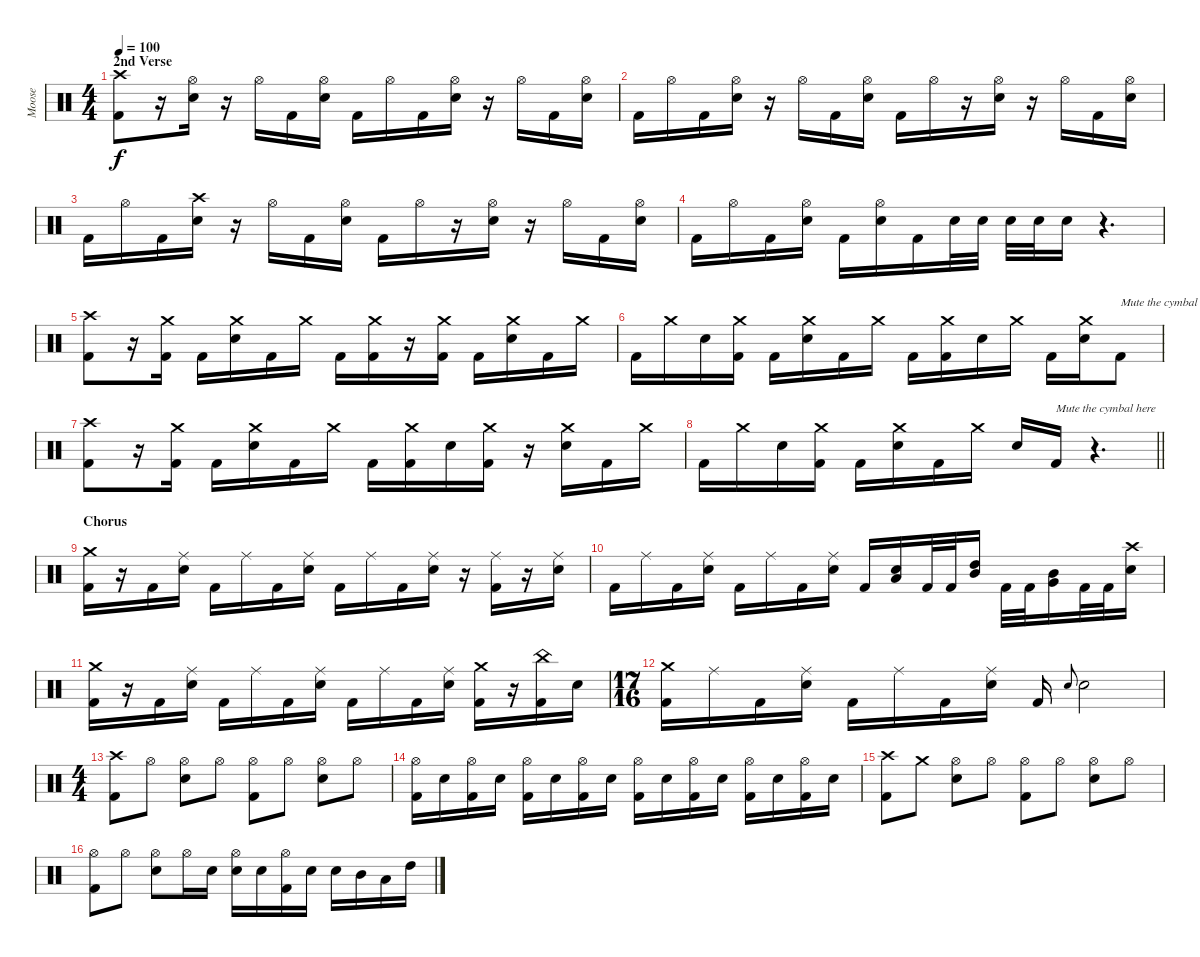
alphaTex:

\track ("Moose" "Moose") {instrument percussion}
\staff {score}
\articulation defaults
\ts (4 4)
\section ("" "2nd Verse")
\tempo 100
\clef neutral
\ks c
("Crash high (hit)" "Kick (hit) 2").8{dy f} r.16 ("Hi-Hat (open)" "Electric Snare (hit)").16 r.16 "Hi-Hat (open)".16 "Kick (hit) 2".16 ("Hi-Hat (open)" "Electric Snare (hit)").16 "Kick (hit) 2".16 "Hi-Hat (open)".16 "Kick (hit) 2".16 ("Hi-Hat (open)" "Electric Snare (hit)").16 r.16 "Hi-Hat (open)".16 "Kick (hit) 2".16 ("Hi-Hat (open)" "Electric Snare (hit)").16 |
"Kick (hit) 2".16 "Hi-Hat (open)".16 "Kick (hit) 2".16 ("Hi-Hat (open)" "Electric Snare (hit)").16 r.16 "Hi-Hat (open)".16 "Kick (hit) 2".16 ("Hi-Hat (open)" "Electric Snare (hit)").16 "Kick (hit) 2".16 "Hi-Hat (open)".16 r.16 ("Hi-Hat (open)" "Electric Snare (hit)").16 r.16 "Hi-Hat (open)".16 "Kick (hit) 2".16 ("Hi-Hat (open)" "Electric Snare (hit)").16 |
"Kick (hit) 2".16 "Hi-Hat (open)".16 "Kick (hit) 2".16 ("Crash high (hit)" "Electric Snare (hit)").16 r.16 "Hi-Hat (open)".16 "Kick (hit) 2".16 ("Hi-Hat (open)" "Electric Snare (hit)").16 "Kick (hit) 2".16 "Hi-Hat (open)".16 r.16 ("Hi-Hat (open)" "Electric Snare (hit)").16 r.16 "Hi-Hat (open)".16 "Kick (hit) 2".16 ("Hi-Hat (open)" "Electric Snare (hit)").16 |
"Kick (hit) 2".16 "Hi-Hat (open)".16 "Kick (hit) 2".16 ("Hi-Hat (open)" "Electric Snare (hit)").16 "Kick (hit) 2".16 ("Hi-Hat (open)" "Electric Snare (hit)").16 "Kick (hit) 2".16 "Electric Snare (hit)".32 "Electric Snare (hit)".32 "Electric Snare (hit)".32 "Electric Snare (hit)".32 "Electric Snare (hit)".16 r.4{d} |
("Crash high (hit)" "Kick (hit) 2").8 r.16 ("Crash medium (hit)" "Kick (hit) 2").16 "Kick (hit) 2".16 ("Crash medium (hit)" "Electric Snare (hit)").16 "Kick (hit) 2".16 "Crash medium (hit)".16 "Kick (hit) 2".16 ("Crash medium (hit)" "Kick (hit) 2").16 r.16 ("Crash medium (hit)" "Kick (hit) 2").16 "Kick (hit) 2".16 ("Crash medium (hit)" "Electric Snare (hit)").16 "Kick (hit) 2".16 "Crash medium (hit)".16 |
"Kick (hit) 2".16 "Crash medium (hit)".16 "Electric Snare (hit)".16 ("Crash medium (hit)" "Kick (hit) 2").16 "Kick (hit) 2".16 ("Crash medium (hit)" "Electric Snare (hit)").16 "Kick (hit) 2".16 "Crash medium (hit)".16 "Kick (hit) 2".16 ("Crash medium (hit)" "Kick (hit) 2").16 "Electric Snare (hit)".16 "Crash medium (hit)".16 "Kick (hit) 2".16 ("Crash medium (hit)" "Electric Snare (hit)").16 "Kick (hit) 2".8{txt "Mute the cymbal here"} |
("Crash high (hit)" "Kick (hit) 2").8 r.16 ("Crash medium (hit)" "Kick (hit) 2").16 "Kick (hit) 2".16 ("Crash medium (hit)" "Electric Snare (hit)").16 "Kick (hit) 2".16 "Crash medium (hit)".16 "Kick (hit) 2".16 ("Crash medium (hit)" "Kick (hit) 2").16 "Electric Snare (hit)".16 ("Crash medium (hit)" "Kick (hit) 2").16 r.16 ("Crash medium (hit)" "Electric Snare (hit)").16 "Kick (hit) 2".16 "Crash medium (hit)".16 |
\barLineRight lightlight "Kick (hit) 2".16 "Crash medium (hit)".16 "Electric Snare (hit)".16
("Crash medium (hit)" "Kick (hit) 2").16 "Kick (hit) 2".16 ("Crash medium (hit)" "Electric Snare (hit)").16 "Kick (hit) 2".16 "Crash medium (hit)".16 "Electric Snare (hit)".16 "Kick (hit) 2".16{txt "Mute the cymbal here"} r.4{d} |
\section ("" "Chorus")
("Crash medium (hit)" "Kick (hit) 2").16 r.16 "Kick (hit) 2".16 ("Ride (middle)" "Electric Snare (hit)").16 "Kick (hit) 2".16 "Ride (middle)".16 "Kick (hit) 2".16 ("Ride (middle)" "Electric Snare (hit)").16 "Kick (hit) 2".16 "Ride (middle)".16 "Kick (hit) 2".16 ("Ride (middle)" "Electric Snare (hit)").16 r.16 ("Ride (middle)" "Kick (hit) 2").16 r.16 ("Ride (middle)" "Electric Snare (hit)").16 |
"Kick (hit) 2".16 "Ride (middle)".16 "Kick (hit) 2".16 ("Ride (middle)" "Electric Snare (hit)").16 "Kick (hit) 2".16 "Ride (middle)".16 "Kick (hit) 2".16 ("Ride (middle)" "Electric Snare (hit)").16 "Kick (hit) 2".16 ("Low Tom (hit)" "Electric Snare (hit)").16 "Kick (hit) 2".32 "Kick (hit) 2".32 ("Mid Tom (hit)" "High Tom (hit)").16 "Kick (hit) 2".32 "Kick (hit) 2".32 ("Very Low Tom (hit)" "Mid Tom (hit)").16 "Kick (hit) 2".32 "Kick (hit) 2".32 ("Crash high (hit)" "Electric Snare (hit)").16 |
("Crash medium (hit)" "Kick (hit) 2").16 r.16 "Kick (hit) 2".16 ("Ride (middle)" "Electric Snare (hit)").16 "Kick (hit) 2".16 "Ride (middle)".16 "Kick (hit) 2".16 ("Ride (middle)" "Electric Snare (hit)").16 "Kick (hit) 2".16 "Ride (middle)".16 "Kick (hit) 2".16 ("Ride (middle)" "Electric Snare (hit)").16 ("Crash medium (hit)" "Kick (hit) 2").16 r.16 ("China (hit)" "Kick (hit) 2").16 "Electric Snare (hit)".16 |
\ts (17 16)
("Crash medium (hit)" "Kick (hit) 2").16 "Ride (middle)".16 "Kick (hit) 2".16 ("Ride (middle)" "Electric Snare (hit)").16 "Kick (hit) 2".16 "Ride (middle)".16 "Kick (hit) 2".16 ("Ride (middle)" "Electric Snare (hit)").16 "Kick (hit) 2".16 "Electric Snare (hit)".8{gr onbeat} "Electric Snare (hit)".2 |
\ts (4 4)
("Crash high (hit)" "Kick (hit) 2").8 "Hi-Hat (open)".8 ("Hi-Hat (open)" "Electric Snare (hit)").8 "Hi-Hat (open)".8 ("Hi-Hat (open)" "Kick (hit) 2").8 "Hi-Hat (open)".8 ("Hi-Hat (open)" "Electric Snare (hit)").8 "Hi-Hat (open)".8 |
("Hi-Hat (open)" "Kick (hit) 2").16 "Electric Snare (hit)".16 ("Hi-Hat (open)" "Kick (hit) 2").16 "Electric Snare (hit)".16 ("Hi-Hat (open)" "Kick (hit) 2").16 "Electric Snare (hit)".16 ("Hi-Hat (open)" "Kick (hit) 2").16 "Electric Snare (hit)".16 ("Hi-Hat (open)" "Kick (hit) 2").16 "Electric Snare (hit)".16 ("Hi-Hat (open)" "Kick (hit) 2").16 "Electric Snare (hit)".16 ("Hi-Hat (open)" "Kick (hit) 2").16 "Electric Snare (hit)".16 ("Hi-Hat (open)" "Kick (hit) 2").16 "Electric Snare (hit)".16 |
("Crash high (hit)" "Kick (hit) 2").8 "Crash medium (hit)".8 ("Hi-Hat (open)" "Electric Snare (hit)").8 "Hi-Hat (open)".8 ("Hi-Hat (open)" "Kick (hit) 2").8 "Hi-Hat (open)".8 ("Hi-Hat (open)" "Electric Snare (hit)").8 "Hi-Hat (open)".8 |
("Hi-Hat (open)" "Kick (hit) 2").8 "Hi-Hat (open)".8 ("Hi-Hat (open)" "Electric Snare (hit)").8 "Hi-Hat (open)".16 "Electric Snare (hit)".16 ("Hi-Hat (open)" "Electric Snare (hit)").16 "Electric Snare (hit)".16 ("Hi-Hat (open)" "Kick (hit) 2").16 "Electric Snare (hit)".16 "Electric Snare (hit)".16 "Mid Tom (hit)".16 "Low Tom (hit)".16 "High Tom (hit)".16
